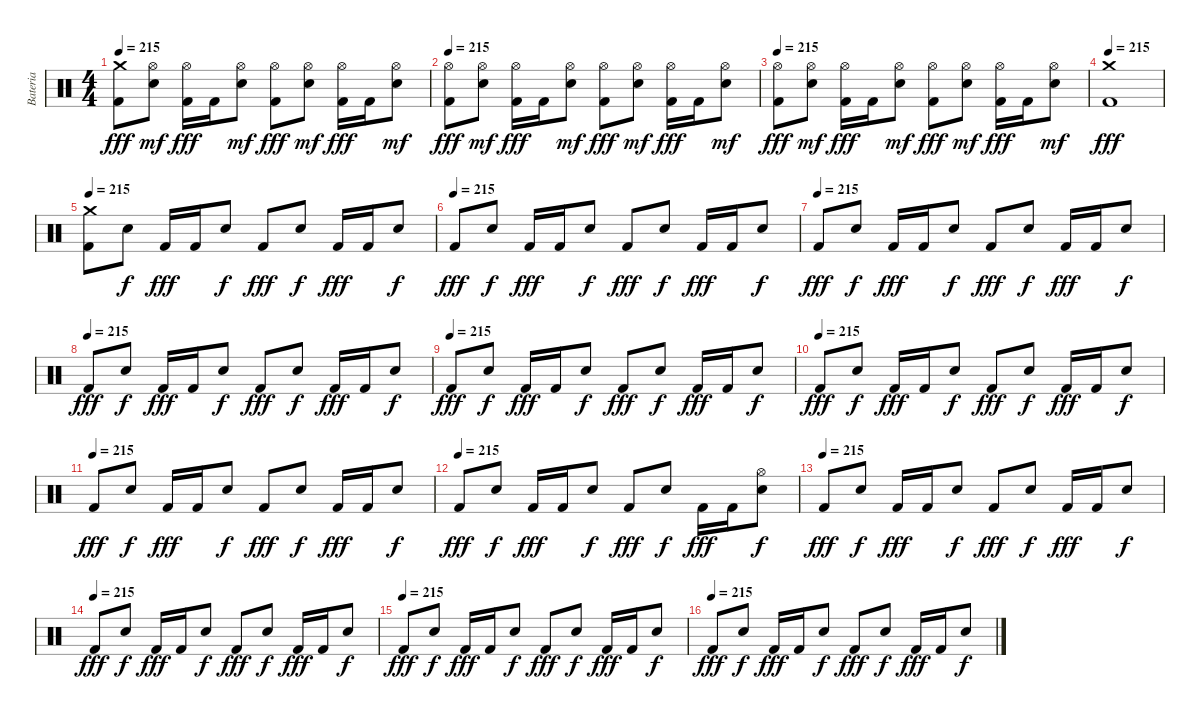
\track ("Bateria" "Bateria") {instrument percussion}
\staff {score}
\articulation defaults
\ts (4 4)
\tempo 215
\clef neutral
\ks c
("Crash medium (hit)" "Kick (hit) 2").8{dy fff} ("Hi-Hat (open)" "Electric Snare (hit)").8{dy mf} ("Hi-Hat (open)" "Kick (hit) 2").16{dy fff} "Kick (hit) 2".16 ("Hi-Hat (open)" "Electric Snare (hit)").8{dy mf} ("Hi-Hat (open)" "Kick (hit) 2").8{dy fff} ("Hi-Hat (open)" "Electric Snare (hit)").8{dy mf} ("Hi-Hat (open)" "Kick (hit) 2").16{dy fff} "Kick (hit) 2".16 ("Hi-Hat (open)" "Electric Snare (hit)").8{dy mf} |
\tempo 215
("Hi-Hat (open)" "Kick (hit) 2").8{dy fff} ("Hi-Hat (open)" "Electric Snare (hit)").8{dy mf} ("Hi-Hat (open)" "Kick (hit) 2").16{dy fff} "Kick (hit) 2".16 ("Hi-Hat (open)" "Electric Snare (hit)").8{dy mf} ("Hi-Hat (open)" "Kick (hit) 2").8{dy fff} ("Hi-Hat (open)" "Electric Snare (hit)").8{dy mf} ("Hi-Hat (open)" "Kick (hit) 2").16{dy fff} "Kick (hit) 2".16 ("Hi-Hat (open)" "Electric Snare (hit)").8{dy mf} |
\tempo 215
("Hi-Hat (open)" "Kick (hit) 2").8{dy fff} ("Hi-Hat (open)" "Electric Snare (hit)").8{dy mf} ("Hi-Hat (open)" "Kick (hit) 2").16{dy fff} "Kick (hit) 2".16 ("Hi-Hat (open)" "Electric Snare (hit)").8{dy mf} ("Hi-Hat (open)" "Kick (hit) 2").8{dy fff} ("Hi-Hat (open)" "Electric Snare (hit)").8{dy mf} ("Hi-Hat (open)" "Kick (hit) 2").16{dy fff} "Kick (hit) 2".16 ("Hi-Hat (open)" "Electric Snare (hit)").8{dy mf} |
\tempo 215
("Crash medium (hit)" "Kick (hit) 2").1{dy fff} |
\tempo 215
("Crash medium (hit)" "Kick (hit) 2").8 "Electric Snare (hit)".8{dy f} "Kick (hit) 2".16{dy fff} "Kick (hit) 2".16 "Electric Snare (hit)".8{dy f} "Kick (hit) 2".8{dy fff} "Electric Snare (hit)".8{dy f} "Kick (hit) 2".16{dy fff} "Kick (hit) 2".16 "Electric Snare (hit)".8{dy f} |
\tempo (215)
"Kick (hit) 2".8{dy fff} "Electric Snare (hit)".8{dy f} "Kick (hit) 2".16{dy fff} "Kick (hit) 2".16 "Electric Snare (hit)".8{dy f} "Kick (hit) 2".8{dy fff} "Electric Snare (hit)".8{dy f} "Kick (hit) 2".16{dy fff} "Kick (hit) 2".16 "Electric Snare (hit)".8{dy f} |
\tempo (215)
"Kick (hit) 2".8{dy fff} "Electric Snare (hit)".8{dy f} "Kick (hit) 2".16{dy fff} "Kick (hit) 2".16 "Electric Snare (hit)".8{dy f} "Kick (hit) 2".8{dy fff} "Electric Snare (hit)".8{dy f} "Kick (hit) 2".16{dy fff} "Kick (hit) 2".16 "Electric Snare (hit)".8{dy f} |
\tempo (215)
"Kick (hit) 2".8{dy fff} "Electric Snare (hit)".8{dy f} "Kick (hit) 2".16{dy fff} "Kick (hit) 2".16 "Electric Snare (hit)".8{dy f} "Kick (hit) 2".8{dy fff} "Electric Snare (hit)".8{dy f} "Kick (hit) 2".16{dy fff} "Kick (hit) 2".16 "Electric Snare (hit)".8{dy f} |
\tempo (215)
"Kick (hit) 2".8{dy fff} "Electric Snare (hit)".8{dy f} "Kick (hit) 2".16{dy fff} "Kick (hit) 2".16 "Electric Snare (hit)".8{dy f} "Kick (hit) 2".8{dy fff} "Electric Snare (hit)".8{dy f} "Kick (hit) 2".16{dy fff} "Kick (hit) 2".16 "Electric Snare (hit)".8{dy f} |
\tempo (215)
"Kick (hit) 2".8{dy fff} "Electric Snare (hit)".8{dy f} "Kick (hit) 2".16{dy fff} "Kick (hit) 2".16 "Electric Snare (hit)".8{dy f} "Kick (hit) 2".8{dy fff} "Electric Snare (hit)".8{dy f} "Kick (hit) 2".16{dy fff} "Kick (hit) 2".16 "Electric Snare (hit)".8{dy f} |
\tempo (215)
"Kick (hit) 2".8{dy fff} "Electric Snare (hit)".8{dy f} "Kick (hit) 2".16{dy fff} "Kick (hit) 2".16 "Electric Snare (hit)".8{dy f} "Kick (hit) 2".8{dy fff} "Electric Snare (hit)".8{dy f} "Kick (hit) 2".16{dy fff} "Kick (hit) 2".16 "Electric Snare (hit)".8{dy f} |
\tempo (215)
"Kick (hit) 2".8{dy fff} "Electric Snare (hit)".8{dy f} "Kick (hit) 2".16{dy fff} "Kick (hit) 2".16 "Electric Snare (hit)".8{dy f} "Kick (hit) 2".8{dy fff} "Electric Snare (hit)".8{dy f} "Kick (hit) 2".16{dy fff} "Kick (hit) 2".16 ("Hi-Hat (open)" "Electric Snare (hit)").8{dy f} |
\tempo (215)
"Kick (hit) 2".8{dy fff} "Electric Snare (hit)".8{dy f} "Kick (hit) 2".16{dy fff} "Kick (hit) 2".16 "Electric Snare (hit)".8{dy f} "Kick (hit) 2".8{dy fff} "Electric Snare (hit)".8{dy f} "Kick (hit) 2".16{dy fff} "Kick (hit) 2".16 "Electric Snare (hit)".8{dy f} |
\tempo (215)
"Kick (hit) 2".8{dy fff} "Electric Snare (hit)".8{dy f} "Kick (hit) 2".16{dy fff} "Kick (hit) 2".16 "Electric Snare (hit)".8{dy f} "Kick (hit) 2".8{dy fff} "Electric Snare (hit)".8{dy f} "Kick (hit) 2".16{dy fff} "Kick (hit) 2".16 "Electric Snare (hit)".8{dy f} |
\tempo (215)
"Kick (hit) 2".8{dy fff} "Electric Snare (hit)".8{dy f} "Kick (hit) 2".16{dy fff} "Kick (hit) 2".16 "Electric Snare (hit)".8{dy f} "Kick (hit) 2".8{dy fff} "Electric Snare (hit)".8{dy f} "Kick (hit) 2".16{dy fff} "Kick (hit) 2".16 "Electric Snare (hit)".8{dy f} |
\tempo (215)
"Kick (hit) 2".8{dy fff} "Electric Snare (hit)".8{dy f} "Kick (hit) 2".16{dy fff} "Kick (hit) 2".16 "Electric Snare (hit)".8{dy f} "Kick (hit) 2".8{dy fff} "Electric Snare (hit)".8{dy f} "Kick (hit) 2".16{dy fff} "Kick (hit) 2".16 "Electric Snare (hit)".8{dy f}
